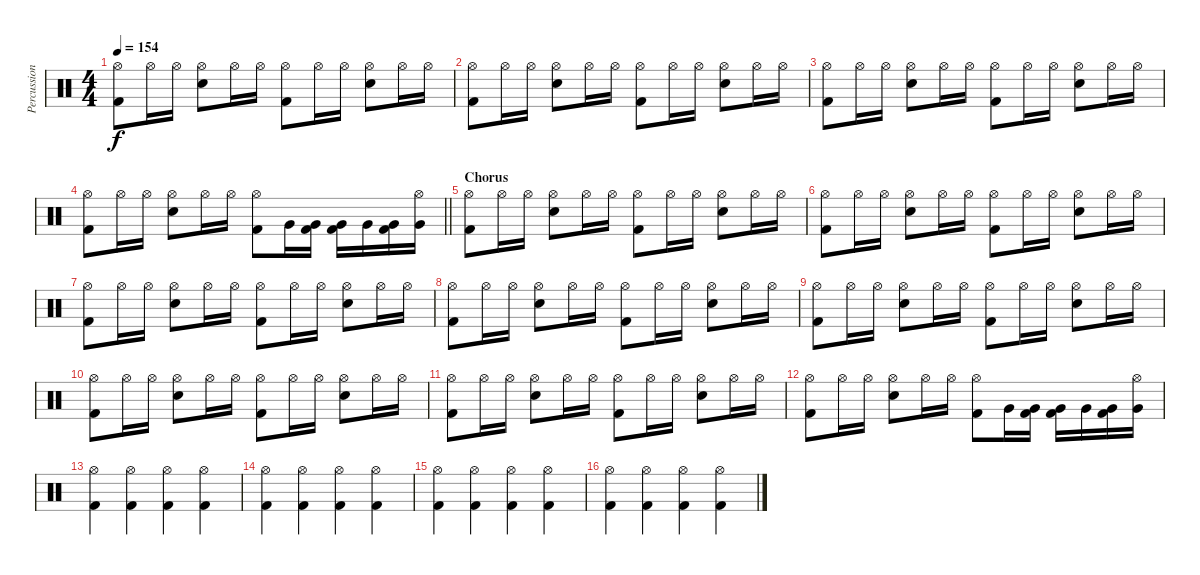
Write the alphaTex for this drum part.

\track ("Percussion" "Percussion") {instrument percussion}
\staff {score}
\articulation defaults
\ts (4 4)
\tempo 154
\clef neutral
\ks c
("Hi-Hat (open)" "Kick (hit) 2").8{dy f} "Hi-Hat (open)".16 "Hi-Hat (open)".16 ("Hi-Hat (open)" "Snare (hit) 2").8 "Hi-Hat (open)".16 "Hi-Hat (open)".16 ("Hi-Hat (open)" "Kick (hit) 2").8 "Hi-Hat (open)".16 "Hi-Hat (open)".16 ("Hi-Hat (open)" "Snare (hit) 2").8 "Hi-Hat (open)".16 "Hi-Hat (open)".16 |
("Hi-Hat (open)" "Kick (hit) 2").8 "Hi-Hat (open)".16 "Hi-Hat (open)".16 ("Hi-Hat (open)" "Snare (hit) 2").8 "Hi-Hat (open)".16 "Hi-Hat (open)".16 ("Hi-Hat (open)" "Kick (hit) 2").8 "Hi-Hat (open)".16 "Hi-Hat (open)".16 ("Hi-Hat (open)" "Snare (hit) 2").8 "Hi-Hat (open)".16 "Hi-Hat (open)".16 |
("Hi-Hat (open)" "Kick (hit) 2").8 "Hi-Hat (open)".16 "Hi-Hat (open)".16 ("Hi-Hat (open)" "Snare (hit) 2").8 "Hi-Hat (open)".16 "Hi-Hat (open)".16 ("Hi-Hat (open)" "Kick (hit) 2").8 "Hi-Hat (open)".16 "Hi-Hat (open)".16 ("Hi-Hat (open)" "Snare (hit) 2").8 "Hi-Hat (open)".16 "Hi-Hat (open)".16 |
\barLineRight lightlight
("Hi-Hat (open)" "Kick (hit) 2").8 "Hi-Hat (open)".16 "Hi-Hat (open)".16 ("Hi-Hat (open)" "Snare (hit) 2").8 "Hi-Hat (open)".16 "Hi-Hat (open)".16 ("Hi-Hat (open)" "Kick (hit) 2").8 "Very Low Tom (hit)".16 ("Kick (hit) 2" "Very Low Tom (hit)").16 ("Kick (hit) 2" "Very Low Tom (hit)").16 "Very Low Tom (hit)".16 ("Kick (hit) 2" "Very Low Tom (hit)").16 ("Hi-Hat (open)" "Very Low Tom (hit)").16 |
\section ("" "Chorus")
("Hi-Hat (open)" "Kick (hit) 2").8 "Hi-Hat (open)".16 "Hi-Hat (open)".16 ("Hi-Hat (open)" "Snare (hit) 2").8 "Hi-Hat (open)".16 "Hi-Hat (open)".16 ("Hi-Hat (open)" "Kick (hit) 2").8 "Hi-Hat (open)".16 "Hi-Hat (open)".16 ("Hi-Hat (open)" "Snare (hit) 2").8 "Hi-Hat (open)".16 "Hi-Hat (open)".16 |
("Hi-Hat (open)" "Kick (hit) 2").8 "Hi-Hat (open)".16 "Hi-Hat (open)".16 ("Hi-Hat (open)" "Snare (hit) 2").8 "Hi-Hat (open)".16 "Hi-Hat (open)".16 ("Hi-Hat (open)" "Kick (hit) 2").8 "Hi-Hat (open)".16 "Hi-Hat (open)".16 ("Hi-Hat (open)" "Snare (hit) 2").8 "Hi-Hat (open)".16 "Hi-Hat (open)".16 |
("Hi-Hat (open)" "Kick (hit) 2").8 "Hi-Hat (open)".16 "Hi-Hat (open)".16 ("Hi-Hat (open)" "Snare (hit) 2").8 "Hi-Hat (open)".16 "Hi-Hat (open)".16 ("Hi-Hat (open)" "Kick (hit) 2").8 "Hi-Hat (open)".16 "Hi-Hat (open)".16 ("Hi-Hat (open)" "Snare (hit) 2").8 "Hi-Hat (open)".16 "Hi-Hat (open)".16 |
("Hi-Hat (open)" "Kick (hit) 2").8 "Hi-Hat (open)".16 "Hi-Hat (open)".16 ("Hi-Hat (open)" "Snare (hit) 2").8 "Hi-Hat (open)".16 "Hi-Hat (open)".16 ("Hi-Hat (open)" "Kick (hit) 2").8 "Hi-Hat (open)".16 "Hi-Hat (open)".16 ("Hi-Hat (open)" "Snare (hit) 2").8 "Hi-Hat (open)".16 "Hi-Hat (open)".16 |
("Hi-Hat (open)" "Kick (hit) 2").8 "Hi-Hat (open)".16 "Hi-Hat (open)".16 ("Hi-Hat (open)" "Snare (hit) 2").8 "Hi-Hat (open)".16 "Hi-Hat (open)".16 ("Hi-Hat (open)" "Kick (hit) 2").8 "Hi-Hat (open)".16 "Hi-Hat (open)".16 ("Hi-Hat (open)" "Snare (hit) 2").8 "Hi-Hat (open)".16 "Hi-Hat (open)".16 |
("Hi-Hat (open)" "Kick (hit) 2").8 "Hi-Hat (open)".16 "Hi-Hat (open)".16 ("Hi-Hat (open)" "Snare (hit) 2").8 "Hi-Hat (open)".16 "Hi-Hat (open)".16 ("Hi-Hat (open)" "Kick (hit) 2").8 "Hi-Hat (open)".16 "Hi-Hat (open)".16 ("Hi-Hat (open)" "Snare (hit) 2").8 "Hi-Hat (open)".16 "Hi-Hat (open)".16 |
("Hi-Hat (open)" "Kick (hit) 2").8 "Hi-Hat (open)".16 "Hi-Hat (open)".16 ("Hi-Hat (open)" "Snare (hit) 2").8 "Hi-Hat (open)".16 "Hi-Hat (open)".16 ("Hi-Hat (open)" "Kick (hit) 2").8 "Hi-Hat (open)".16 "Hi-Hat (open)".16 ("Hi-Hat (open)" "Snare (hit) 2").8 "Hi-Hat (open)".16 "Hi-Hat (open)".16 |
("Hi-Hat (open)" "Kick (hit) 2").8 "Hi-Hat (open)".16 "Hi-Hat (open)".16 ("Hi-Hat (open)" "Snare (hit) 2").8 "Hi-Hat (open)".16 "Hi-Hat (open)".16 ("Hi-Hat (open)" "Kick (hit) 2").8 "Very Low Tom (hit)".16 ("Kick (hit) 2" "Very Low Tom (hit)").16 ("Kick (hit) 2" "Very Low Tom (hit)").16 "Very Low Tom (hit)".16 ("Kick (hit) 2" "Very Low Tom (hit)").16 ("Hi-Hat (open)" "Very Low Tom (hit)").16 |
("Hi-Hat (open)" "Kick (hit) 2").4 ("Hi-Hat (open)" "Kick (hit) 2").4 ("Hi-Hat (open)" "Kick (hit) 2").4 ("Hi-Hat (open)" "Kick (hit) 2").4 |
("Hi-Hat (open)" "Kick (hit) 2").4 ("Hi-Hat (open)" "Kick (hit) 2").4 ("Hi-Hat (open)" "Kick (hit) 2").4 ("Hi-Hat (open)" "Kick (hit) 2").4 |
("Hi-Hat (open)" "Kick (hit) 2").4 ("Hi-Hat (open)" "Kick (hit) 2").4 ("Hi-Hat (open)" "Kick (hit) 2").4 ("Hi-Hat (open)" "Kick (hit) 2").4 |
("Hi-Hat (open)" "Kick (hit) 2").4 ("Hi-Hat (open)" "Kick (hit) 2").4 ("Hi-Hat (open)" "Kick (hit) 2").4 ("Hi-Hat (open)" "Kick (hit) 2").4
